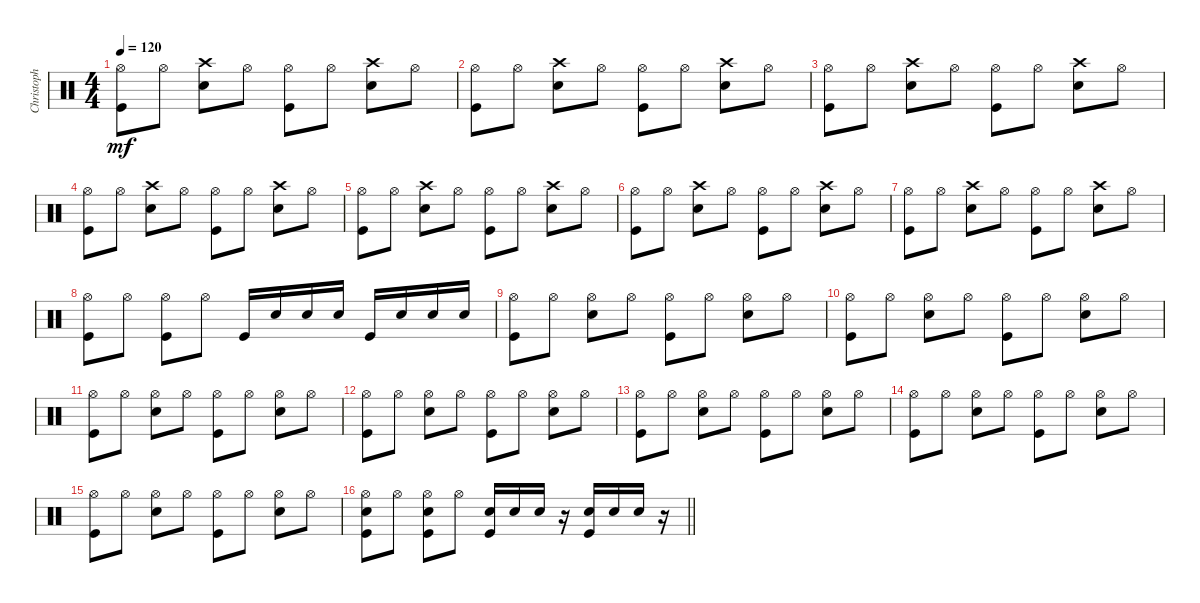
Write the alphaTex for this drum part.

\track ("Christoph Schneider" "Christoph ") {instrument percussion}
\staff {score}
\articulation defaults
\ts (4 4)
\tempo 120
\clef neutral
\ks c
("Kick (hit)" "Hi-Hat (open)").8{dy mf} "Hi-Hat (open)".8 ("Snare (hit) 2" "Crash high (hit)").8 "Hi-Hat (open)".8 ("Hi-Hat (open)" "Kick (hit)").8 "Hi-Hat (open)".8 ("Snare (hit) 2" "Crash high (hit)").8 "Hi-Hat (open)".8 |
("Kick (hit)" "Hi-Hat (open)").8 "Hi-Hat (open)".8 ("Snare (hit) 2" "Crash high (hit)").8 "Hi-Hat (open)".8 ("Hi-Hat (open)" "Kick (hit)").8 "Hi-Hat (open)".8 ("Snare (hit) 2" "Crash high (hit)").8 "Hi-Hat (open)".8 |
("Kick (hit)" "Hi-Hat (open)").8 "Hi-Hat (open)".8 ("Snare (hit) 2" "Crash high (hit)").8 "Hi-Hat (open)".8 ("Hi-Hat (open)" "Kick (hit)").8 "Hi-Hat (open)".8 ("Snare (hit) 2" "Crash high (hit)").8 "Hi-Hat (open)".8 |
("Kick (hit)" "Hi-Hat (open)").8 "Hi-Hat (open)".8 ("Snare (hit) 2" "Crash high (hit)").8 "Hi-Hat (open)".8 ("Hi-Hat (open)" "Kick (hit)").8 "Hi-Hat (open)".8 ("Snare (hit) 2" "Crash high (hit)").8 "Hi-Hat (open)".8 |
("Kick (hit)" "Hi-Hat (open)").8 "Hi-Hat (open)".8 ("Snare (hit) 2" "Crash high (hit)").8 "Hi-Hat (open)".8 ("Hi-Hat (open)" "Kick (hit)").8 "Hi-Hat (open)".8 ("Snare (hit) 2" "Crash high (hit)").8 "Hi-Hat (open)".8 |
("Kick (hit)" "Hi-Hat (open)").8 "Hi-Hat (open)".8 ("Snare (hit) 2" "Crash high (hit)").8 "Hi-Hat (open)".8 ("Hi-Hat (open)" "Kick (hit)").8 "Hi-Hat (open)".8 ("Snare (hit) 2" "Crash high (hit)").8 "Hi-Hat (open)".8 |
("Kick (hit)" "Hi-Hat (open)").8 "Hi-Hat (open)".8 ("Snare (hit) 2" "Crash high (hit)").8 "Hi-Hat (open)".8 ("Hi-Hat (open)" "Kick (hit)").8 "Hi-Hat (open)".8 ("Snare (hit) 2" "Crash high (hit)").8 "Hi-Hat (open)".8 |
("Kick (hit)" "Hi-Hat (open)").8 "Hi-Hat (open)".8 ("Hi-Hat (open)" "Kick (hit)").8 "Hi-Hat (open)".8 "Kick (hit)".16 "Snare (hit) 2".16 "Snare (hit) 2".16 "Snare (hit) 2".16 "Kick (hit)".16 "Snare (hit) 2".16 "Snare (hit) 2".16 "Snare (hit) 2".16 |
("Kick (hit)" "Hi-Hat (open)").8 "Hi-Hat (open)".8 ("Snare (hit) 2" "Hi-Hat (open)").8 "Hi-Hat (open)".8 ("Hi-Hat (open)" "Kick (hit)").8 "Hi-Hat (open)".8 ("Hi-Hat (open)" "Snare (hit) 2").8 "Hi-Hat (open)".8 |
("Kick (hit)" "Hi-Hat (open)").8 "Hi-Hat (open)".8 ("Snare (hit) 2" "Hi-Hat (open)").8 "Hi-Hat (open)".8 ("Hi-Hat (open)" "Kick (hit)").8 "Hi-Hat (open)".8 ("Hi-Hat (open)" "Snare (hit) 2").8 "Hi-Hat (open)".8 |
("Kick (hit)" "Hi-Hat (open)").8 "Hi-Hat (open)".8 ("Snare (hit) 2" "Hi-Hat (open)").8 "Hi-Hat (open)".8 ("Hi-Hat (open)" "Kick (hit)").8 "Hi-Hat (open)".8 ("Hi-Hat (open)" "Snare (hit) 2").8 "Hi-Hat (open)".8 |
("Kick (hit)" "Hi-Hat (open)").8 "Hi-Hat (open)".8 ("Snare (hit) 2" "Hi-Hat (open)").8 "Hi-Hat (open)".8 ("Hi-Hat (open)" "Kick (hit)").8 "Hi-Hat (open)".8 ("Hi-Hat (open)" "Snare (hit) 2").8 "Hi-Hat (open)".8 |
("Kick (hit)" "Hi-Hat (open)").8 "Hi-Hat (open)".8 ("Snare (hit) 2" "Hi-Hat (open)").8 "Hi-Hat (open)".8 ("Hi-Hat (open)" "Kick (hit)").8 "Hi-Hat (open)".8 ("Hi-Hat (open)" "Snare (hit) 2").8 "Hi-Hat (open)".8 |
("Kick (hit)" "Hi-Hat (open)").8 "Hi-Hat (open)".8 ("Snare (hit) 2" "Hi-Hat (open)").8 "Hi-Hat (open)".8 ("Hi-Hat (open)" "Kick (hit)").8 "Hi-Hat (open)".8 ("Hi-Hat (open)" "Snare (hit) 2").8 "Hi-Hat (open)".8 |
("Kick (hit)" "Hi-Hat (open)").8 "Hi-Hat (open)".8 ("Snare (hit) 2" "Hi-Hat (open)").8 "Hi-Hat (open)".8 ("Hi-Hat (open)" "Kick (hit)").8 "Hi-Hat (open)".8 ("Hi-Hat (open)" "Snare (hit) 2").8 "Hi-Hat (open)".8 |
\barLineRight lightlight
("Snare (hit) 2" "Hi-Hat (open)" "Kick (hit)").8 "Hi-Hat (open)".8 ("Snare (hit) 2" "Hi-Hat (open)" "Kick (hit)").8 "Hi-Hat (open)".8 ("Snare (hit) 2" "Kick (hit)").16 "Snare (hit) 2".16 "Snare (hit) 2".16 r.16 ("Snare (hit) 2" "Kick (hit)").16 "Snare (hit) 2".16 "Snare (hit) 2".16 r.16
